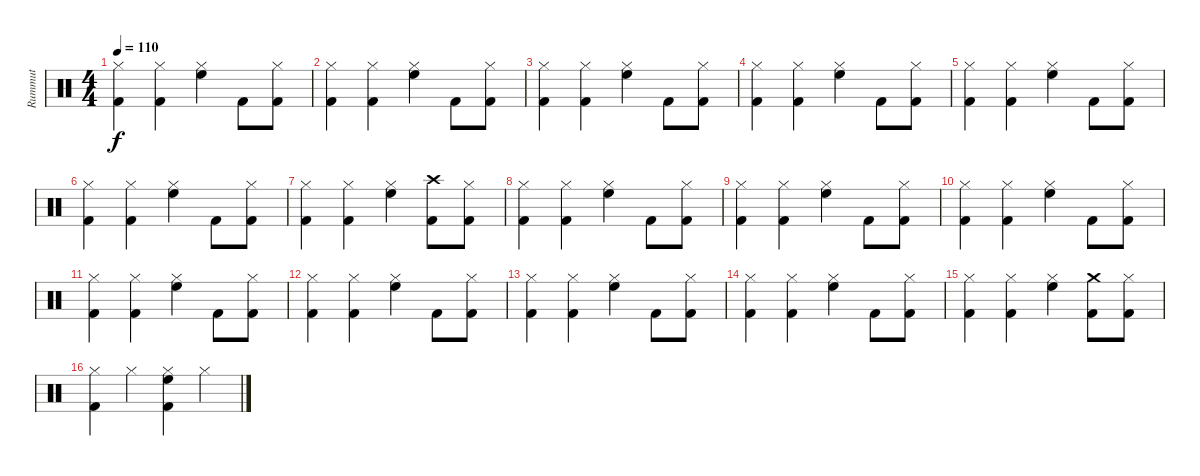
\track ("Rummut" "Rummut") {instrument percussion}
\staff {score}
\articulation defaults
\ts (4 4)
\tempo 110
\clef neutral
\ks c
("Hi-Hat (closed)" "Kick (hit) 2").4{dy f} ("Hi-Hat (closed)" "Kick (hit) 2").4 ("Hi-Hat (closed)" "High Floor Tom (hit)").4 "Kick (hit) 2".8 ("Hi-Hat (closed)" "Kick (hit) 2").8 |
("Hi-Hat (closed)" "Kick (hit) 2").4 ("Hi-Hat (closed)" "Kick (hit) 2").4 ("Hi-Hat (closed)" "High Floor Tom (hit)").4 "Kick (hit) 2".8 ("Hi-Hat (closed)" "Kick (hit) 2").8 |
("Hi-Hat (closed)" "Kick (hit) 2").4 ("Hi-Hat (closed)" "Kick (hit) 2").4 ("Hi-Hat (closed)" "High Floor Tom (hit)").4 "Kick (hit) 2".8 ("Hi-Hat (closed)" "Kick (hit) 2").8 |
("Hi-Hat (closed)" "Kick (hit) 2").4 ("Hi-Hat (closed)" "Kick (hit) 2").4 ("Hi-Hat (closed)" "High Floor Tom (hit)").4 "Kick (hit) 2".8 ("Hi-Hat (closed)" "Kick (hit) 2").8 |
("Hi-Hat (closed)" "Kick (hit) 2").4 ("Hi-Hat (closed)" "Kick (hit) 2").4 ("Hi-Hat (closed)" "High Floor Tom (hit)").4 "Kick (hit) 2".8 ("Hi-Hat (closed)" "Kick (hit) 2").8 |
("Hi-Hat (closed)" "Kick (hit) 2").4 ("Hi-Hat (closed)" "Kick (hit) 2").4 ("Hi-Hat (closed)" "High Floor Tom (hit)").4 "Kick (hit) 2".8 ("Hi-Hat (closed)" "Kick (hit) 2").8 |
("Hi-Hat (closed)" "Kick (hit) 2").4 ("Hi-Hat (closed)" "Kick (hit) 2").4 ("Hi-Hat (closed)" "High Floor Tom (hit)").4 ("Crash high (hit)" "Kick (hit) 2").8 ("Hi-Hat (closed)" "Kick (hit) 2").8 |
("Hi-Hat (closed)" "Kick (hit) 2").4 ("Hi-Hat (closed)" "Kick (hit) 2").4 ("Hi-Hat (closed)" "High Floor Tom (hit)").4 "Kick (hit) 2".8 ("Hi-Hat (closed)" "Kick (hit) 2").8 |
("Hi-Hat (closed)" "Kick (hit) 2").4 ("Hi-Hat (closed)" "Kick (hit) 2").4 ("Hi-Hat (closed)" "High Floor Tom (hit)").4 "Kick (hit) 2".8 ("Hi-Hat (closed)" "Kick (hit) 2").8 |
("Hi-Hat (closed)" "Kick (hit) 2").4 ("Hi-Hat (closed)" "Kick (hit) 2").4 ("Hi-Hat (closed)" "High Floor Tom (hit)").4 "Kick (hit) 2".8 ("Hi-Hat (closed)" "Kick (hit) 2").8 |
("Hi-Hat (closed)" "Kick (hit) 2").4 ("Hi-Hat (closed)" "Kick (hit) 2").4 ("Hi-Hat (closed)" "High Floor Tom (hit)").4 "Kick (hit) 2".8 ("Hi-Hat (closed)" "Kick (hit) 2").8 |
("Hi-Hat (closed)" "Kick (hit) 2").4 ("Hi-Hat (closed)" "Kick (hit) 2").4 ("Hi-Hat (closed)" "High Floor Tom (hit)").4 "Kick (hit) 2".8 ("Hi-Hat (closed)" "Kick (hit) 2").8 |
("Hi-Hat (closed)" "Kick (hit) 2").4 ("Hi-Hat (closed)" "Kick (hit) 2").4 ("Hi-Hat (closed)" "High Floor Tom (hit)").4 "Kick (hit) 2".8 ("Hi-Hat (closed)" "Kick (hit) 2").8 |
("Hi-Hat (closed)" "Kick (hit) 2").4 ("Hi-Hat (closed)" "Kick (hit) 2").4 ("Hi-Hat (closed)" "High Floor Tom (hit)").4 "Kick (hit) 2".8 ("Hi-Hat (closed)" "Kick (hit) 2").8 |
("Hi-Hat (closed)" "Kick (hit) 2").4 ("Hi-Hat (closed)" "Kick (hit) 2").4 ("Hi-Hat (closed)" "High Floor Tom (hit)").4 ("Crash medium (hit)" "Kick (hit) 2").8 ("Hi-Hat (closed)" "Kick (hit) 2").8 |
("Hi-Hat (closed)" "Kick (hit) 2").4 "Hi-Hat (closed)".4 ("Hi-Hat (closed)" "High Floor Tom (hit)" "Kick (hit) 2").4 "Hi-Hat (closed)".4
